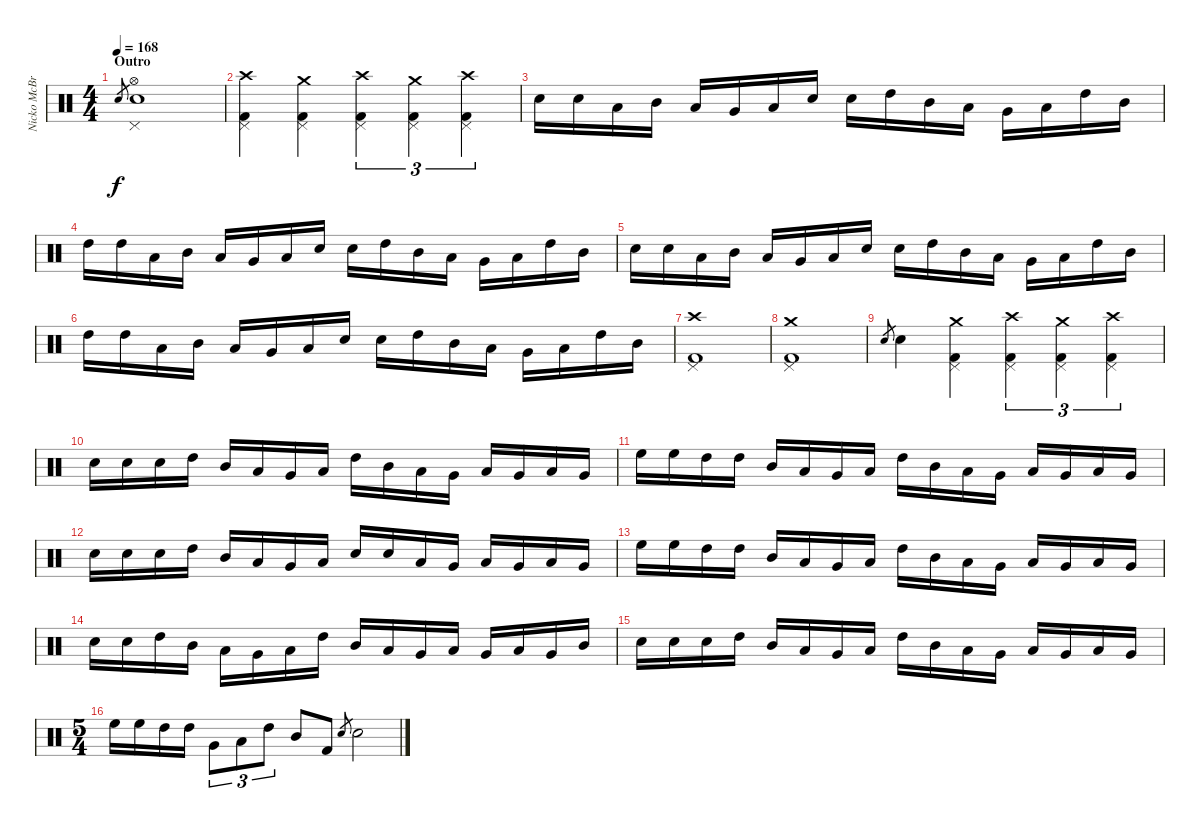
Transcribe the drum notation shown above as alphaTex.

\track ("Nicko McBrain" "Nicko McBr") {instrument percussion}
\staff {score}
\articulation defaults
\ts (4 4)
\section ("" "Outro")
\tempo 168
\clef neutral
\ks c "Snare (hit) 2".8{gr dy f}
("Snare (hit) 2" "Pedal Hi-Hat (hit)" "Hi-Hat (open)").1 |
("Kick (hit) 2" "Pedal Hi-Hat (hit)" "Crash high (hit)").4 ("Kick (hit) 2" "Pedal Hi-Hat (hit)" "Crash medium (hit)").4 ("Kick (hit) 2" "Pedal Hi-Hat (hit)" "Crash high (hit)").4{tu (3 2)} ("Kick (hit) 2" "Pedal Hi-Hat (hit)" "Crash medium (hit)").4{tu (3 2)} ("Kick (hit) 2" "Pedal Hi-Hat (hit)" "Crash high (hit)").4{tu (3 2)} |
"Snare (hit) 2".16 "Snare (hit) 2".16 "Low Tom (hit)".16 "Mid Tom (hit)".16 "Low Tom (hit)".16 "Very Low Tom (hit)".16 "Low Floor Tom (hit)".16 "Snare (hit) 2".16 "Snare (hit) 2".16 "High Tom (hit)".16 "Mid Tom (hit)".16 "Low Tom (hit)".16 "Very Low Tom (hit)".16 "Low Floor Tom (hit)".16 "High Tom (hit)".16 "Mid Tom (hit)".16 |
"High Tom (hit)".16 "High Tom (hit)".16 "Low Tom (hit)".16 "Mid Tom (hit)".16 "Low Tom (hit)".16 "Very Low Tom (hit)".16 "Low Floor Tom (hit)".16 "Snare (hit) 2".16 "Snare (hit) 2".16 "High Tom (hit)".16 "Mid Tom (hit)".16 "Low Tom (hit)".16 "Very Low Tom (hit)".16 "Low Floor Tom (hit)".16 "High Tom (hit)".16 "Mid Tom (hit)".16 |
"Snare (hit) 2".16 "Snare (hit) 2".16 "Low Tom (hit)".16 "Mid Tom (hit)".16 "Low Tom (hit)".16 "Very Low Tom (hit)".16 "Low Floor Tom (hit)".16 "Snare (hit) 2".16 "Snare (hit) 2".16 "High Tom (hit)".16 "Mid Tom (hit)".16 "Low Tom (hit)".16 "Very Low Tom (hit)".16 "Low Floor Tom (hit)".16 "High Tom (hit)".16 "Mid Tom (hit)".16 |
"High Tom (hit)".16 "High Tom (hit)".16 "Low Tom (hit)".16 "Mid Tom (hit)".16 "Low Tom (hit)".16 "Very Low Tom (hit)".16 "Low Floor Tom (hit)".16 "Snare (hit) 2".16 "Snare (hit) 2".16 "High Tom (hit)".16 "Mid Tom (hit)".16 "Low Tom (hit)".16 "Very Low Tom (hit)".16 "Low Floor Tom (hit)".16 "High Tom (hit)".16 "Mid Tom (hit)".16 |
("Kick (hit) 2" "Pedal Hi-Hat (hit)" "Crash high (hit)").1 |
("Kick (hit) 2" "Pedal Hi-Hat (hit)" "Crash medium (hit)").1 |
"Snare (hit) 2".8{gr} "Snare (hit) 2".4 ("Kick (hit) 2" "Pedal Hi-Hat (hit)" "Crash medium (hit)").4 ("Kick (hit) 2" "Pedal Hi-Hat (hit)" "Crash high (hit)").4{tu (3 2)} ("Kick (hit) 2" "Pedal Hi-Hat (hit)" "Crash medium (hit)").4{tu (3 2)} ("Kick (hit) 2" "Pedal Hi-Hat (hit)" "Crash high (hit)").4{tu (3 2)} |
"Snare (hit) 2".16 "Snare (hit) 2".16 "Snare (hit) 2".16 "High Tom (hit)".16 "Mid Tom (hit)".16 "Low Tom (hit)".16 "Very Low Tom (hit)".16 "Low Floor Tom (hit)".16 "High Tom (hit)".16 "Mid Tom (hit)".16 "Low Tom (hit)".16 "Very Low Tom (hit)".16 "Low Floor Tom (hit)".16 "Very Low Tom (hit)".16 "Low Tom (hit)".16 "Very Low Tom (hit)".16 |
"High Floor Tom (hit)".16 "High Floor Tom (hit)".16 "High Tom (hit)".16 "High Tom (hit)".16 "Mid Tom (hit)".16 "Low Tom (hit)".16 "Very Low Tom (hit)".16 "Low Floor Tom (hit)".16 "High Tom (hit)".16 "Mid Tom (hit)".16 "Low Tom (hit)".16 "Very Low Tom (hit)".16 "Low Floor Tom (hit)".16 "Very Low Tom (hit)".16 "Low Tom (hit)".16 "Very Low Tom (hit)".16 |
"Snare (hit) 2".16 "Snare (hit) 2".16 "Snare (hit) 2".16 "High Tom (hit)".16 "Mid Tom (hit)".16 "Low Tom (hit)".16 "Very Low Tom (hit)".16 "Low Floor Tom (hit)".16 "Snare (hit) 2".16 "Snare (hit) 2".16 "Low Tom (hit)".16 "Very Low Tom (hit)".16 "Low Floor Tom (hit)".16 "Very Low Tom (hit)".16 "Low Tom (hit)".16 "Very Low Tom (hit)".16 |
"High Floor Tom (hit)".16 "High Floor Tom (hit)".16 "High Tom (hit)".16 "High Tom (hit)".16 "Mid Tom (hit)".16 "Low Tom (hit)".16 "Very Low Tom (hit)".16 "Low Floor Tom (hit)".16 "High Tom (hit)".16 "Mid Tom (hit)".16 "Low Tom (hit)".16 "Very Low Tom (hit)".16 "Low Floor Tom (hit)".16 "Very Low Tom (hit)".16 "Low Tom (hit)".16 "Very Low Tom (hit)".16 |
"Snare (hit) 2".16 "Snare (hit) 2".16 "High Tom (hit)".16 "Mid Tom (hit)".16 "Low Tom (hit)".16 "Very Low Tom (hit)".16 "Low Floor Tom (hit)".16 "High Tom (hit)".16 "Mid Tom (hit)".16 "Low Tom (hit)".16 "Very Low Tom (hit)".16 "Low Floor Tom (hit)".16 "Very Low Tom (hit)".16 "Low Tom (hit)".16 "Very Low Tom (hit)".16 "Mid Tom (hit)".16 |
"Snare (hit) 2".16 "Snare (hit) 2".16 "Snare (hit) 2".16 "High Tom (hit)".16 "Mid Tom (hit)".16 "Low Tom (hit)".16 "Very Low Tom (hit)".16 "Low Floor Tom (hit)".16 "High Tom (hit)".16 "Mid Tom (hit)".16 "Low Tom (hit)".16 "Very Low Tom (hit)".16 "Low Floor Tom (hit)".16 "Very Low Tom (hit)".16 "Low Tom (hit)".16 "Very Low Tom (hit)".16 |
\ts (5 4)
"High Floor Tom (hit)".16 "High Floor Tom (hit)".16 "High Tom (hit)".16 "High Tom (hit)".16 "Very Low Tom (hit)".8{tu (3 2)} "Low Floor Tom (hit)".8{tu (3 2)} "High Tom (hit)".8{tu (3 2)} "Mid Tom (hit)".8 "Kick (hit) 2".8 "Snare (hit) 2".8{gr} "Snare (hit) 2".2
